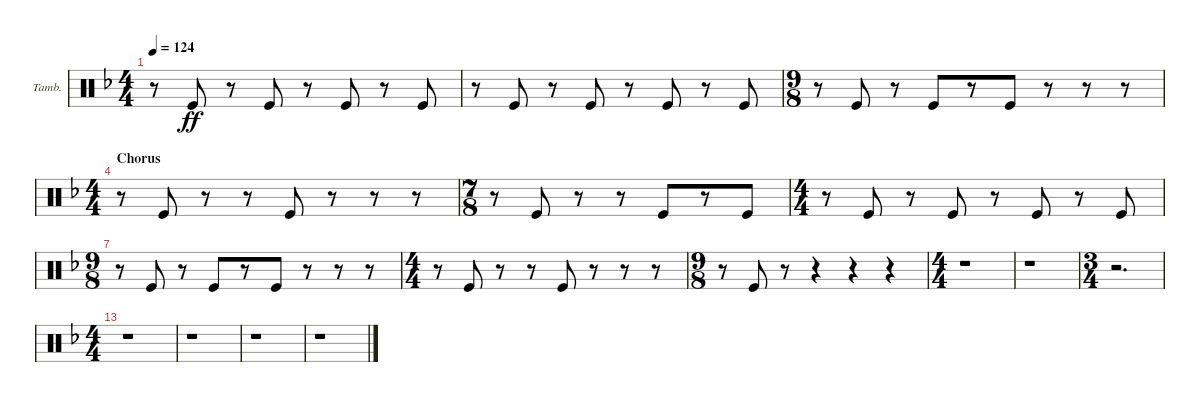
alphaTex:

\bracketExtendMode nobrackets
\firstSystemTrackNameOrientation horizontal
\otherSystemsTrackNameOrientation horizontal
\defaultBarNumberDisplay FirstOfSystem
\track ("Tambourine" "Tamb.") {instrument percussion}
\staff {score}
\articulation defaults
\ts (4 4)
\tempo 124
\clef neutral
\scale
0.292308
\ks f
r.8{dy ff} "Kick (hit)".8 r.8 "Kick (hit)".8 r.8 "Kick (hit)".8 r.8 "Kick (hit)".8 |
\scale
0.292308 r.8 "Kick (hit)".8 r.8 "Kick (hit)".8 r.8 "Kick (hit)".8 r.8 "Kick (hit)".8 |
\ts (9 8)
\scale
0.415385 r.8 "Kick (hit)".8 r.8 "Kick (hit)".8 r.8 "Kick (hit)".8 r.8 r.8 r.8 |
\ts (4 4)
\section ("" "Chorus")
\scale
0.333333 r.8 "Kick (hit)".8 r.8 r.8 "Kick (hit)".8 r.8 r.8 r.8 |
\ts (7 8)
\scale
0.333333 r.8 "Kick (hit)".8 r.8 r.8 "Kick (hit)".8 r.8 "Kick (hit)".8 |
\ts (4 4)
\scale
0.333333 r.8 "Kick (hit)".8 r.8 "Kick (hit)".8 r.8 "Kick (hit)".8 r.8 "Kick (hit)".8 |
\ts (9 8)
\scale
0.333333 r.8 "Kick (hit)".8 r.8 "Kick (hit)".8 r.8 "Kick (hit)".8 r.8 r.8 r.8 |
\ts (4 4)
\scale
0.333333 r.8 "Kick (hit)".8 r.8 r.8 "Kick (hit)".8 r.8 r.8 r.8 |
\ts (9 8)
\scale
0.333333 r.8 "Kick (hit)".8 r.8 r.4 r.4 r.4 |
\ts (4 4)
\scale
0.369863 r.1 |
\scale
0.260274 r.1 |
\ts (3 4)
\scale
0.369863 r.2{d} |
\ts (4 4)
\scale
0.415385 r.1 |
\scale
0.292308 r.1 |
\scale
0.292308 r.1 |
\scale
0.333333 r.1
